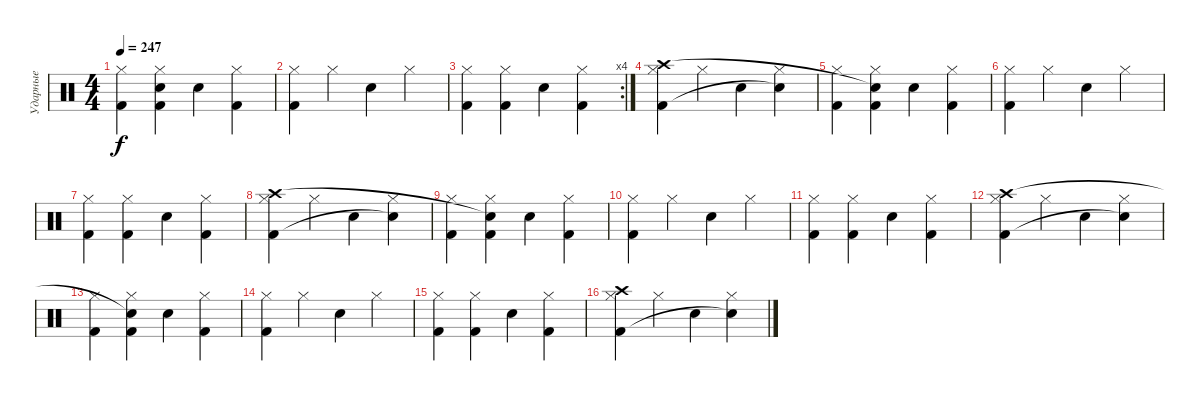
\track ("Ударные" "Ударные") {instrument percussion}
\staff {score}
\articulation defaults
\ts (4 4)
\tempo 247
\clef neutral
\ks c
("Hi-Hat (closed)" "Kick (hit) 2").4{dy f} ("Hi-Hat (closed)" "Kick (hit) 2" "Snare (hit)"{t}).4 "Snare (hit) 2".4 ("Hi-Hat (closed)" "Kick (hit) 2").4 |
("Hi-Hat (closed)" "Kick (hit) 2").4{volume 12} "Hi-Hat (closed)".4 "Snare (hit) 2".4 "Hi-Hat (closed)".4 |
\rc 4
("Hi-Hat (closed)" "Kick (hit) 2").4 ("Hi-Hat (closed)" "Kick (hit) 2").4 "Snare (hit) 2".4 ("Hi-Hat (closed)" "Kick (hit) 2").4 |
("Hi-Hat (closed)" "Kick (hit) 2" "Crash high (hit)").4 "Hi-Hat (closed)".4 "Snare (hit) 2".4 ("Hi-Hat (closed)" "Snare (hit)"{t}).4 |
("Hi-Hat (closed)" "Kick (hit) 2").4 ("Hi-Hat (closed)" "Kick (hit) 2" "Snare (hit)"{t}).4 "Snare (hit) 2".4 ("Hi-Hat (closed)" "Kick (hit) 2").4 |
("Hi-Hat (closed)" "Kick (hit) 2").4{volume 11} "Hi-Hat (closed)".4 "Snare (hit) 2".4 "Hi-Hat (closed)".4 |
("Hi-Hat (closed)" "Kick (hit) 2").4 ("Hi-Hat (closed)" "Kick (hit) 2").4 "Snare (hit) 2".4 ("Hi-Hat (closed)" "Kick (hit) 2").4 |
("Hi-Hat (closed)" "Kick (hit) 2" "Crash high (hit)").4 "Hi-Hat (closed)".4 "Snare (hit) 2".4 ("Hi-Hat (closed)" "Snare (hit)"{t}).4 |
("Hi-Hat (closed)" "Kick (hit) 2").4 ("Hi-Hat (closed)" "Kick (hit) 2" "Snare (hit)"{t}).4 "Snare (hit) 2".4 ("Hi-Hat (closed)" "Kick (hit) 2").4 |
("Hi-Hat (closed)" "Kick (hit) 2").4{volume 10} "Hi-Hat (closed)".4 "Snare (hit) 2".4 "Hi-Hat (closed)".4 |
("Hi-Hat (closed)" "Kick (hit) 2").4 ("Hi-Hat (closed)" "Kick (hit) 2").4 "Snare (hit) 2".4 ("Hi-Hat (closed)" "Kick (hit) 2").4 |
("Hi-Hat (closed)" "Kick (hit) 2" "Crash high (hit)").4 "Hi-Hat (closed)".4 "Snare (hit) 2".4 ("Hi-Hat (closed)" "Snare (hit)"{t}).4 |
("Hi-Hat (closed)" "Kick (hit) 2").4 ("Hi-Hat (closed)" "Kick (hit) 2" "Snare (hit)"{t}).4 "Snare (hit) 2".4 ("Hi-Hat (closed)" "Kick (hit) 2").4 |
("Hi-Hat (closed)" "Kick (hit) 2").4{volume 9} "Hi-Hat (closed)".4 "Snare (hit) 2".4 "Hi-Hat (closed)".4 |
("Hi-Hat (closed)" "Kick (hit) 2").4{volume 9} ("Hi-Hat (closed)" "Kick (hit) 2").4 "Snare (hit) 2".4 ("Hi-Hat (closed)" "Kick (hit) 2").4 |
("Hi-Hat (closed)" "Kick (hit) 2" "Crash high (hit)").4 "Hi-Hat (closed)".4 "Snare (hit) 2".4 ("Hi-Hat (closed)" "Snare (hit)"{t}).4
